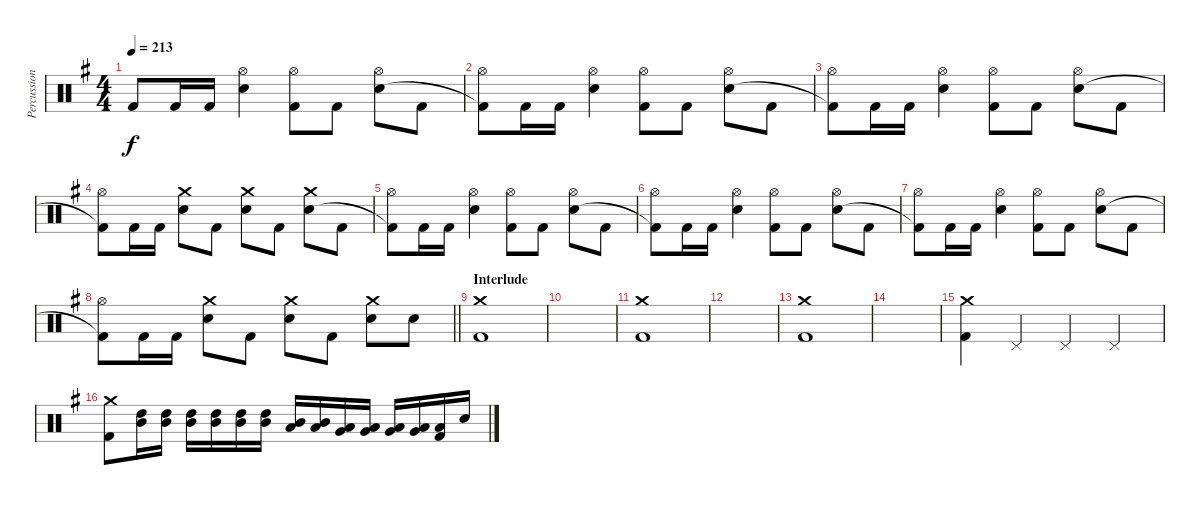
\track ("Percussion" "Percussion") {instrument percussion}
\staff {score}
\articulation defaults
\ts (4 4)
\tempo 213
\clef neutral
\ks eminor "Kick (hit) 2"{t}.8{dy f} "Kick (hit) 2".16 "Kick (hit) 2".16
("Hi-Hat (open)" "Snare (hit) 2").4 ("Hi-Hat (open)" "Kick (hit) 2").8 "Kick (hit) 2".8 ("Hi-Hat (open)" "Snare (hit) 2").8 "Kick (hit) 2".8 |
("Hi-Hat (open)" "Kick (hit) 2"{t}).8 "Kick (hit) 2".16 "Kick (hit) 2".16 ("Hi-Hat (open)" "Snare (hit) 2").4 ("Hi-Hat (open)" "Kick (hit) 2").8 "Kick (hit) 2".8 ("Hi-Hat (open)" "Snare (hit) 2").8 "Kick (hit) 2".8 |
("Hi-Hat (open)" "Kick (hit) 2"{t}).8 "Kick (hit) 2".16 "Kick (hit) 2".16 ("Hi-Hat (open)" "Snare (hit) 2").4 ("Hi-Hat (open)" "Kick (hit) 2").8 "Kick (hit) 2".8 ("Hi-Hat (open)" "Snare (hit) 2").8 "Kick (hit) 2".8 |
("Hi-Hat (open)" "Kick (hit) 2"{t}).8 "Kick (hit) 2".16 "Kick (hit) 2".16 ("Crash medium (hit)" "Snare (hit) 2").8 "Kick (hit) 2".8 ("Crash medium (hit)" "Snare (hit) 2").8 "Kick (hit) 2".8 ("Crash medium (hit)" "Snare (hit) 2").8 "Kick (hit) 2".8 |
("Hi-Hat (open)" "Kick (hit) 2"{t}).8 "Kick (hit) 2".16 "Kick (hit) 2".16 ("Hi-Hat (open)" "Snare (hit) 2").4 ("Hi-Hat (open)" "Kick (hit) 2").8 "Kick (hit) 2".8 ("Hi-Hat (open)" "Snare (hit) 2").8 "Kick (hit) 2".8 |
("Hi-Hat (open)" "Kick (hit) 2"{t}).8 "Kick (hit) 2".16 "Kick (hit) 2".16 ("Hi-Hat (open)" "Snare (hit) 2").4 ("Hi-Hat (open)" "Kick (hit) 2").8 "Kick (hit) 2".8 ("Hi-Hat (open)" "Snare (hit) 2").8 "Kick (hit) 2".8 |
("Hi-Hat (open)" "Kick (hit) 2"{t}).8 "Kick (hit) 2".16 "Kick (hit) 2".16 ("Hi-Hat (open)" "Snare (hit) 2").4 ("Hi-Hat (open)" "Kick (hit) 2").8 "Kick (hit) 2".8 ("Hi-Hat (open)" "Snare (hit) 2").8 "Kick (hit) 2".8 |
\barLineRight lightlight
("Hi-Hat (open)" "Kick (hit) 2"{t}).8 "Kick (hit) 2".16 "Kick (hit) 2".16 ("Crash medium (hit)" "Snare (hit) 2").8 "Kick (hit) 2".8 ("Crash medium (hit)" "Snare (hit) 2").8 "Kick (hit) 2".8 ("Crash medium (hit)" "Snare (hit) 2").8 "Snare (hit) 2".8 |
\section ("" "Interlude")
("Crash medium (hit)" "Kick (hit) 2").1 |
|
("Crash medium (hit)" "Kick (hit) 2").1 |
|
("Crash medium (hit)" "Kick (hit) 2").1 |
|
("Crash medium (hit)" "Kick (hit) 2").4 "Pedal Hi-Hat (hit)".4 "Pedal Hi-Hat (hit)".4 "Pedal Hi-Hat (hit)".4 |
("Crash medium (hit)" "Kick (hit) 2").8 ("High Tom (hit)" "Mid Tom (hit)").16 ("High Tom (hit)" "Mid Tom (hit)").16 ("High Tom (hit)" "Mid Tom (hit)").16 ("High Tom (hit)" "Mid Tom (hit)").16 ("High Tom (hit)" "Mid Tom (hit)").16 ("High Tom (hit)" "Mid Tom (hit)").16 ("Mid Tom (hit)" "Low Tom (hit)").16 ("Mid Tom (hit)" "Low Tom (hit)").16 ("Low Tom (hit)" "Very Low Tom (hit)").16 ("Low Tom (hit)" "Very Low Tom (hit)").16 ("Very Low Tom (hit)" "Low Floor Tom (hit)").16 ("Very Low Tom (hit)" "Low Floor Tom (hit)").16 ("Low Floor Tom (hit)" "Kick (hit) 2").16 "Snare (hit) 2".16
